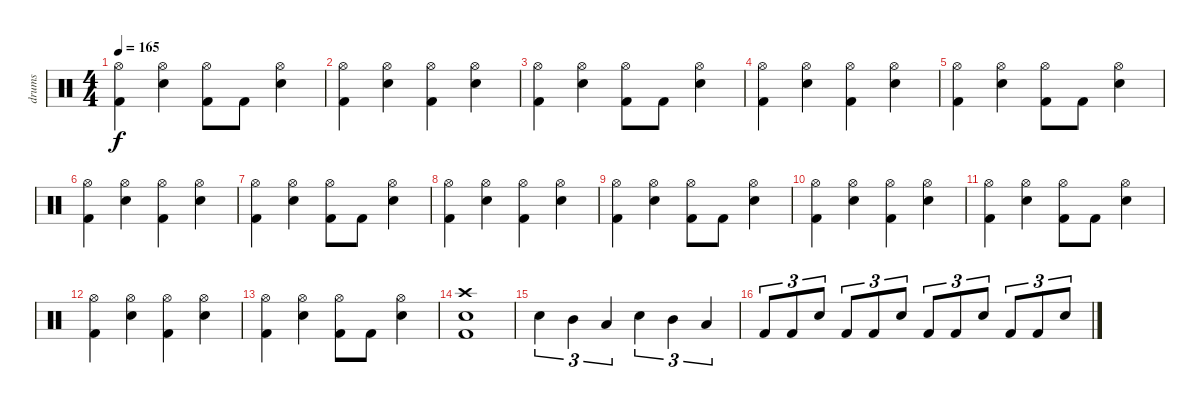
\track ("drums" "drums") {instrument percussion}
\staff {score}
\articulation defaults
\ts (4 4)
\tempo 165
\clef neutral
\ks c
("Hi-Hat (open)" "Kick (hit) 2").4{dy f} ("Hi-Hat (open)" "Electric Snare (hit)").4 ("Hi-Hat (open)" "Kick (hit) 2").8 "Kick (hit) 2".8 ("Hi-Hat (open)" "Electric Snare (hit)").4 |
("Hi-Hat (open)" "Kick (hit) 2").4 ("Hi-Hat (open)" "Electric Snare (hit)").4 ("Hi-Hat (open)" "Kick (hit) 2").4 ("Hi-Hat (open)" "Electric Snare (hit)").4 |
("Hi-Hat (open)" "Kick (hit) 2").4 ("Hi-Hat (open)" "Electric Snare (hit)").4 ("Hi-Hat (open)" "Kick (hit) 2").8 "Kick (hit) 2".8 ("Hi-Hat (open)" "Electric Snare (hit)").4 |
("Hi-Hat (open)" "Kick (hit) 2").4 ("Hi-Hat (open)" "Electric Snare (hit)").4 ("Hi-Hat (open)" "Kick (hit) 2").4 ("Hi-Hat (open)" "Electric Snare (hit)").4 |
("Hi-Hat (open)" "Kick (hit) 2").4 ("Hi-Hat (open)" "Electric Snare (hit)").4 ("Hi-Hat (open)" "Kick (hit) 2").8 "Kick (hit) 2".8 ("Hi-Hat (open)" "Electric Snare (hit)").4 |
("Hi-Hat (open)" "Kick (hit) 2").4 ("Hi-Hat (open)" "Electric Snare (hit)").4 ("Hi-Hat (open)" "Kick (hit) 2").4 ("Hi-Hat (open)" "Electric Snare (hit)").4 |
("Hi-Hat (open)" "Kick (hit) 2").4 ("Hi-Hat (open)" "Electric Snare (hit)").4 ("Hi-Hat (open)" "Kick (hit) 2").8 "Kick (hit) 2".8 ("Hi-Hat (open)" "Electric Snare (hit)").4 |
("Hi-Hat (open)" "Kick (hit) 2").4 ("Hi-Hat (open)" "Electric Snare (hit)").4 ("Hi-Hat (open)" "Kick (hit) 2").4 ("Hi-Hat (open)" "Electric Snare (hit)").4 |
("Hi-Hat (open)" "Kick (hit) 2").4 ("Hi-Hat (open)" "Electric Snare (hit)").4 ("Hi-Hat (open)" "Kick (hit) 2").8 "Kick (hit) 2".8 ("Hi-Hat (open)" "Electric Snare (hit)").4 |
("Hi-Hat (open)" "Kick (hit) 2").4 ("Hi-Hat (open)" "Electric Snare (hit)").4 ("Hi-Hat (open)" "Kick (hit) 2").4 ("Hi-Hat (open)" "Electric Snare (hit)").4 |
("Hi-Hat (open)" "Kick (hit) 2").4 ("Hi-Hat (open)" "Electric Snare (hit)").4 ("Hi-Hat (open)" "Kick (hit) 2").8 "Kick (hit) 2".8 ("Hi-Hat (open)" "Electric Snare (hit)").4 |
("Hi-Hat (open)" "Kick (hit) 2").4 ("Hi-Hat (open)" "Electric Snare (hit)").4 ("Hi-Hat (open)" "Kick (hit) 2").4 ("Hi-Hat (open)" "Electric Snare (hit)").4 |
("Hi-Hat (open)" "Kick (hit) 2").4 ("Hi-Hat (open)" "Electric Snare (hit)").4 ("Hi-Hat (open)" "Kick (hit) 2").8 "Kick (hit) 2".8 ("Hi-Hat (open)" "Electric Snare (hit)").4 |
("Crash high (hit)" "Electric Snare (hit)" "Kick (hit) 2").1 |
"Electric Snare (hit)".4{tu (3 2)} "Mid Tom (hit)".4{tu (3 2)} "Low Tom (hit)".4{tu (3 2)} "Electric Snare (hit)".4{tu (3 2)} "Mid Tom (hit)".4{tu (3 2)} "Low Tom (hit)".4{tu (3 2)} |
"Kick (hit) 2".8{tu (3 2)} "Kick (hit) 2".8{tu (3 2)} "Electric Snare (hit)".8{tu (3 2)} "Kick (hit) 2".8{tu (3 2)} "Kick (hit) 2".8{tu (3 2)} "Electric Snare (hit)".8{tu (3 2)} "Kick (hit) 2".8{tu (3 2)} "Kick (hit) 2".8{tu (3 2)} "Electric Snare (hit)".8{tu (3 2)} "Kick (hit) 2".8{tu (3 2)} "Kick (hit) 2".8{tu (3 2)} "Electric Snare (hit)".8{tu (3 2)}
